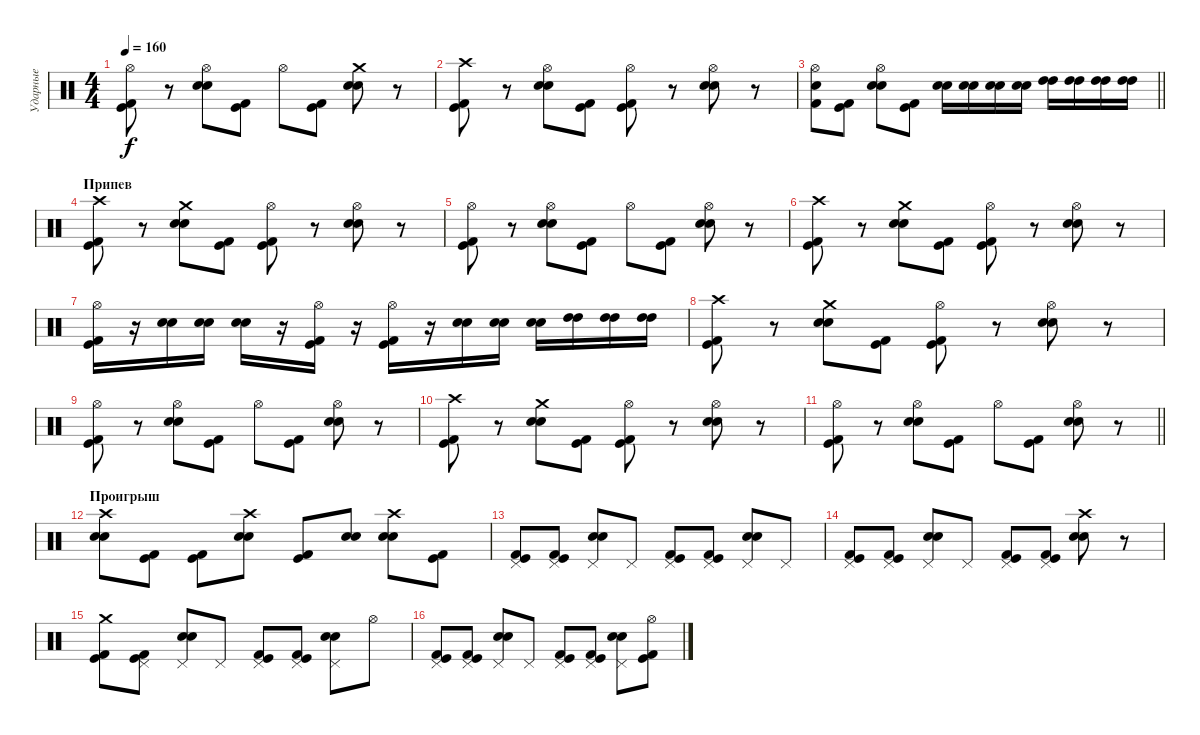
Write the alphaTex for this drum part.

\track ("Ударные" "Ударные") {instrument percussion}
\staff {score}
\articulation defaults
\ts (4 4)
\tempo 160
\clef neutral
\ks c
("Hi-Hat (open)" "Kick (hit) 2" "Kick (hit)").8{dy f} r.8 ("Hi-Hat (open)" "Electric Snare (hit)" "Snare (hit) 2").8 ("Kick (hit) 2" "Kick (hit)").8 "Hi-Hat (open)".8 ("Kick (hit) 2" "Kick (hit)").8 ("Crash medium (hit)" "Electric Snare (hit)" "Snare (hit) 2").8 r.8 |
("Crash high (hit)" "Kick (hit) 2" "Kick (hit)").8 r.8 ("Hi-Hat (open)" "Electric Snare (hit)" "Snare (hit) 2").8 ("Kick (hit) 2" "Kick (hit)").8 ("Hi-Hat (open)" "Kick (hit) 2" "Kick (hit)").8 r.8 ("Hi-Hat (open)" "Electric Snare (hit)" "Snare (hit) 2").8 r.8 |
\barLineRight lightlight
("Hi-Hat (open)" "Snare (hit) 2" "Kick (hit) 2").8 ("Kick (hit)" "Kick (hit) 2").8 ("Hi-Hat (open)" "Snare (hit) 2" "Electric Snare (hit)").8 ("Kick (hit)" "Kick (hit) 2").8 ("Snare (hit) 2" "Electric Snare (hit)").16 ("Snare (hit) 2" "Electric Snare (hit)").16 ("Snare (hit) 2" "Electric Snare (hit)").16 ("Snare (hit) 2" "Electric Snare (hit)").16 ("High Tom (hit)" "High Tom (hit)").16 ("High Tom (hit)" "High Tom (hit)").16 ("High Tom (hit)" "High Tom (hit)").16 ("High Tom (hit)" "High Tom (hit)").16 |
\section ("" "Припев")
("Crash high (hit)" "Kick (hit) 2" "Kick (hit)").8 r.8 ("Crash medium (hit)" "Electric Snare (hit)" "Snare (hit) 2").8 ("Kick (hit) 2" "Kick (hit)").8 ("Hi-Hat (open)" "Kick (hit) 2" "Kick (hit)").8 r.8 ("Hi-Hat (open)" "Electric Snare (hit)" "Snare (hit) 2").8 r.8 |
("Hi-Hat (open)" "Kick (hit) 2" "Kick (hit)").8 r.8 ("Hi-Hat (open)" "Electric Snare (hit)" "Snare (hit) 2").8 ("Kick (hit) 2" "Kick (hit)").8 "Hi-Hat (open)".8 ("Kick (hit) 2" "Kick (hit)").8 ("Hi-Hat (open)" "Electric Snare (hit)" "Snare (hit) 2").8 r.8 |
("Crash high (hit)" "Kick (hit) 2" "Kick (hit)").8 r.8 ("Crash medium (hit)" "Electric Snare (hit)" "Snare (hit) 2").8 ("Kick (hit) 2" "Kick (hit)").8 ("Hi-Hat (open)" "Kick (hit) 2" "Kick (hit)").8 r.8 ("Hi-Hat (open)" "Electric Snare (hit)" "Snare (hit) 2").8 r.8 |
("Hi-Hat (open)" "Kick (hit) 2" "Kick (hit)").16 r.16 ("Snare (hit) 2" "Electric Snare (hit)").16 ("Snare (hit) 2" "Electric Snare (hit)").16 ("Snare (hit) 2" "Electric Snare (hit)").16 r.16 ("Hi-Hat (open)" "Kick (hit)" "Kick (hit) 2").16 r.16 ("Hi-Hat (open)" "Kick (hit)" "Kick (hit) 2").16 r.16 ("Snare (hit) 2" "Electric Snare (hit)").16 ("Snare (hit) 2" "Electric Snare (hit)").16 ("Snare (hit) 2" "Electric Snare (hit)").16 ("High Tom (hit)" "High Tom (hit)").16 ("High Tom (hit)" "High Tom (hit)").16 ("High Tom (hit)" "High Tom (hit)").16 |
("Crash high (hit)" "Kick (hit) 2" "Kick (hit)").8 r.8 ("Crash medium (hit)" "Electric Snare (hit)" "Snare (hit) 2").8 ("Kick (hit) 2" "Kick (hit)").8 ("Hi-Hat (open)" "Kick (hit) 2" "Kick (hit)").8 r.8 ("Hi-Hat (open)" "Electric Snare (hit)" "Snare (hit) 2").8 r.8 |
("Hi-Hat (open)" "Kick (hit) 2" "Kick (hit)").8 r.8 ("Hi-Hat (open)" "Electric Snare (hit)" "Snare (hit) 2").8 ("Kick (hit) 2" "Kick (hit)").8 "Hi-Hat (open)".8 ("Kick (hit) 2" "Kick (hit)").8 ("Hi-Hat (open)" "Electric Snare (hit)" "Snare (hit) 2").8 r.8 |
("Crash high (hit)" "Kick (hit) 2" "Kick (hit)").8 r.8 ("Crash medium (hit)" "Electric Snare (hit)" "Snare (hit) 2").8 ("Kick (hit) 2" "Kick (hit)").8 ("Hi-Hat (open)" "Kick (hit) 2" "Kick (hit)").8 r.8 ("Hi-Hat (open)" "Electric Snare (hit)" "Snare (hit) 2").8 r.8 |
\barLineRight lightlight
("Hi-Hat (open)" "Kick (hit) 2" "Kick (hit)").8 r.8 ("Hi-Hat (open)" "Electric Snare (hit)" "Snare (hit) 2").8 ("Kick (hit) 2" "Kick (hit)").8 "Hi-Hat (open)".8 ("Kick (hit) 2" "Kick (hit)").8 ("Hi-Hat (open)" "Electric Snare (hit)" "Snare (hit) 2").8 r.8 |
\section ("" "Проигрыш")
("Crash high (hit)" "Electric Snare (hit)" "Snare (hit) 2").8 ("Kick (hit) 2" "Kick (hit)").8 ("Kick (hit) 2" "Kick (hit)").8 ("Crash high (hit)" "Electric Snare (hit)" "Snare (hit) 2").8 ("Kick (hit) 2" "Kick (hit)").8 ("Electric Snare (hit)" "Snare (hit) 2").8 ("Crash high (hit)" "Electric Snare (hit)" "Snare (hit) 2").8 ("Kick (hit) 2" "Kick (hit)").8 |
("Pedal Hi-Hat (hit)" "Kick (hit)" "Kick (hit) 2").8 ("Pedal Hi-Hat (hit)" "Kick (hit)" "Kick (hit) 2").8 ("Pedal Hi-Hat (hit)" "Snare (hit) 2" "Electric Snare (hit)").8 "Pedal Hi-Hat (hit)".8 ("Pedal Hi-Hat (hit)" "Kick (hit)" "Kick (hit) 2").8 ("Pedal Hi-Hat (hit)" "Kick (hit)" "Kick (hit) 2").8 ("Pedal Hi-Hat (hit)" "Snare (hit) 2" "Electric Snare (hit)").8 "Pedal Hi-Hat (hit)".8 |
("Pedal Hi-Hat (hit)" "Kick (hit)" "Kick (hit) 2").8 ("Pedal Hi-Hat (hit)" "Kick (hit)" "Kick (hit) 2").8 ("Pedal Hi-Hat (hit)" "Snare (hit) 2" "Electric Snare (hit)").8 "Pedal Hi-Hat (hit)".8 ("Pedal Hi-Hat (hit)" "Kick (hit)" "Kick (hit) 2").8 ("Pedal Hi-Hat (hit)" "Kick (hit)" "Kick (hit) 2").8 ("Crash high (hit)" "Snare (hit) 2" "Electric Snare (hit)").8 r.8 |
("Crash medium (hit)" "Kick (hit)" "Kick (hit) 2").8 ("Pedal Hi-Hat (hit)" "Kick (hit)" "Kick (hit) 2").8 ("Pedal Hi-Hat (hit)" "Snare (hit) 2" "Electric Snare (hit)").8 "Pedal Hi-Hat (hit)".8 ("Pedal Hi-Hat (hit)" "Kick (hit)" "Kick (hit) 2").8 ("Pedal Hi-Hat (hit)" "Kick (hit)" "Kick (hit) 2").8 ("Pedal Hi-Hat (hit)" "Snare (hit) 2" "Electric Snare (hit)").8 "Hi-Hat (open)".8 |
("Pedal Hi-Hat (hit)" "Kick (hit)" "Kick (hit) 2").8 ("Pedal Hi-Hat (hit)" "Kick (hit)" "Kick (hit) 2").8 ("Pedal Hi-Hat (hit)" "Snare (hit) 2" "Electric Snare (hit)").8 "Pedal Hi-Hat (hit)".8 ("Pedal Hi-Hat (hit)" "Kick (hit)" "Kick (hit) 2").8 ("Pedal Hi-Hat (hit)" "Kick (hit)" "Kick (hit) 2").8 ("Pedal Hi-Hat (hit)" "Snare (hit) 2" "Electric Snare (hit)").8 ("Hi-Hat (open)" "Kick (hit)" "Kick (hit) 2").8
